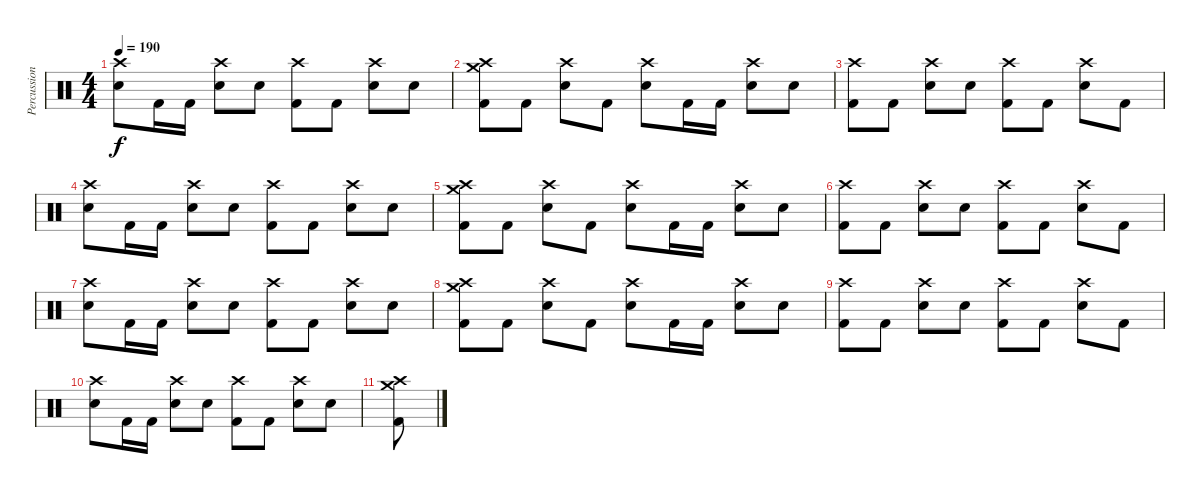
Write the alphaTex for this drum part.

\track ("Percussion" "Percussion") {instrument percussion}
\staff {score}
\articulation defaults
\ts (4 4)
\tempo 190
\clef neutral
\ks c
("Crash high (hit)" "Snare (hit)").8{dy f} "Kick (hit) 2".16 "Kick (hit) 2".16 ("Crash high (hit)" "Snare (hit) 2").8 "Snare (hit)".8 ("Crash high (hit)" "Kick (hit) 2").8 "Kick (hit) 2".8 ("Crash high (hit)" "Snare (hit) 2").8 "Snare (hit)".8 |
("Crash high (hit)" "Crash medium (hit)" "Kick (hit) 2").8 "Kick (hit) 2".8 ("Crash high (hit)" "Snare (hit)").8 "Kick (hit) 2".8 ("Crash high (hit)" "Snare (hit)").8 "Kick (hit) 2".16 "Kick (hit) 2".16 ("Crash high (hit)" "Snare (hit) 2").8 "Snare (hit)".8 |
("Crash high (hit)" "Kick (hit) 2").8 "Kick (hit) 2".8 ("Crash high (hit)" "Snare (hit) 2").8 "Snare (hit)".8 ("Crash high (hit)" "Kick (hit) 2").8 "Kick (hit) 2".8 ("Crash high (hit)" "Snare (hit)").8 "Kick (hit) 2".8 |
("Crash high (hit)" "Snare (hit)").8 "Kick (hit) 2".16 "Kick (hit) 2".16 ("Crash high (hit)" "Snare (hit) 2").8 "Snare (hit)".8 ("Crash high (hit)" "Kick (hit) 2").8 "Kick (hit) 2".8 ("Crash high (hit)" "Snare (hit) 2").8 "Snare (hit)".8 |
("Crash high (hit)" "Crash medium (hit)" "Kick (hit) 2").8 "Kick (hit) 2".8 ("Crash high (hit)" "Snare (hit)").8 "Kick (hit) 2".8 ("Crash high (hit)" "Snare (hit)").8 "Kick (hit) 2".16 "Kick (hit) 2".16 ("Crash high (hit)" "Snare (hit) 2").8 "Snare (hit)".8 |
("Crash high (hit)" "Kick (hit) 2").8 "Kick (hit) 2".8 ("Crash high (hit)" "Snare (hit) 2").8 "Snare (hit)".8 ("Crash high (hit)" "Kick (hit) 2").8 "Kick (hit) 2".8 ("Crash high (hit)" "Snare (hit)").8 "Kick (hit) 2".8 |
("Crash high (hit)" "Snare (hit)").8 "Kick (hit) 2".16 "Kick (hit) 2".16 ("Crash high (hit)" "Snare (hit) 2").8 "Snare (hit)".8 ("Crash high (hit)" "Kick (hit) 2").8 "Kick (hit) 2".8 ("Crash high (hit)" "Snare (hit) 2").8 "Snare (hit)".8 |
("Crash high (hit)" "Crash medium (hit)" "Kick (hit) 2").8 "Kick (hit) 2".8 ("Crash high (hit)" "Snare (hit)").8 "Kick (hit) 2".8 ("Crash high (hit)" "Snare (hit)").8 "Kick (hit) 2".16 "Kick (hit) 2".16 ("Crash high (hit)" "Snare (hit) 2").8 "Snare (hit)".8 |
("Crash high (hit)" "Kick (hit) 2").8 "Kick (hit) 2".8 ("Crash high (hit)" "Snare (hit) 2").8 "Snare (hit)".8 ("Crash high (hit)" "Kick (hit) 2").8 "Kick (hit) 2".8 ("Crash high (hit)" "Snare (hit)").8 "Kick (hit) 2".8 |
("Crash high (hit)" "Snare (hit)").8 "Kick (hit) 2".16 "Kick (hit) 2".16 ("Crash high (hit)" "Snare (hit) 2").8 "Snare (hit)".8 ("Crash high (hit)" "Kick (hit) 2").8 "Kick (hit) 2".8 ("Crash high (hit)" "Snare (hit) 2").8 "Snare (hit)".8 |
("Crash high (hit)" "Crash medium (hit)" "Kick (hit) 2").8
